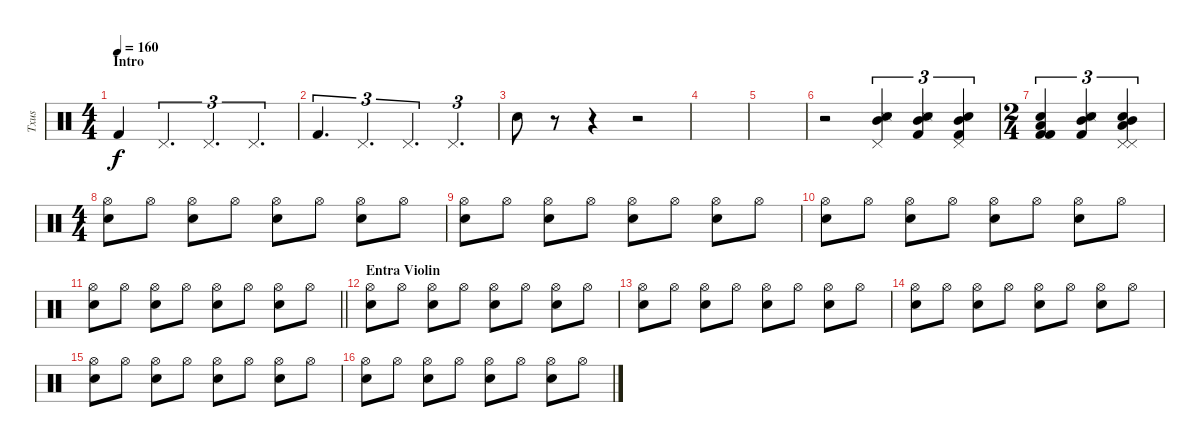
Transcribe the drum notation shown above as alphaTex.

\track ("Txus" "Txus") {instrument percussion}
\staff {score}
\articulation defaults
\ts (4 4)
\section ("" "Intro")
\tempo 160
\clef neutral
\ks c "Kick (hit) 2".4{dy f} "Pedal Hi-Hat (hit)".4{d tu (3 2)} "Pedal Hi-Hat (hit)".4{d tu (3 2)} "Pedal Hi-Hat (hit)".4{d tu (3 2)}
|
"Kick (hit) 2".4{d tu (3 2)} "Pedal Hi-Hat (hit)".4{d tu (3 2)} "Pedal Hi-Hat (hit)".4{d tu (3 2)} "Pedal Hi-Hat (hit)".4{d tu (3 2)} |
"Snare (hit) 2".8 r.8 r.4 r.2 |
|
|
r.2 ("Snare (hit) 2" "Snare (side stick) 3" "Mid Tom (hit)" "Pedal Hi-Hat (hit)").4{tu (3 2)} ("Snare (hit) 2" "Kick (hit) 2" "Snare (side stick) 3" "Mid Tom (hit)").4{tu (3 2)} ("Snare (hit) 2" "Pedal Hi-Hat (hit)" "Kick (hit) 2" "Mid Tom (hit)").4{tu (3 2)} |
\ts (2 4)
("Snare (hit) 2" "Kick (hit) 2" "Kick (hit) 2" "Low Tom (hit)").4{tu (3 2)} ("Snare (hit) 2" "Snare (side stick) 3" "Mid Tom (hit)" "Kick (hit) 2").4{tu (3 2)} ("Low Tom (hit)" "Mid Tom (hit)" "Snare (hit) 2" "Pedal Hi-Hat (hit)" "Pedal Hi-Hat (hit)").4{tu (3 2)} |
\ts (4 4)
("Snare (hit) 2" "Hi-Hat (open)").8 "Hi-Hat (open)".8 ("Snare (hit) 2" "Hi-Hat (open)").8 "Hi-Hat (open)".8 ("Snare (hit) 2" "Hi-Hat (open)").8 "Hi-Hat (open)".8 ("Snare (hit) 2" "Hi-Hat (open)").8 "Hi-Hat (open)".8 |
("Snare (hit) 2" "Hi-Hat (open)").8 "Hi-Hat (open)".8 ("Snare (hit) 2" "Hi-Hat (open)").8 "Hi-Hat (open)".8 ("Snare (hit) 2" "Hi-Hat (open)").8 "Hi-Hat (open)".8 ("Snare (hit) 2" "Hi-Hat (open)").8 "Hi-Hat (open)".8 |
("Snare (hit) 2" "Hi-Hat (open)").8 "Hi-Hat (open)".8 ("Snare (hit) 2" "Hi-Hat (open)").8 "Hi-Hat (open)".8 ("Snare (hit) 2" "Hi-Hat (open)").8 "Hi-Hat (open)".8 ("Snare (hit) 2" "Hi-Hat (open)").8 "Hi-Hat (open)".8 |
\barLineRight lightlight
("Snare (hit) 2" "Hi-Hat (open)").8 "Hi-Hat (open)".8 ("Snare (hit) 2" "Hi-Hat (open)").8 "Hi-Hat (open)".8 ("Snare (hit) 2" "Hi-Hat (open)").8 "Hi-Hat (open)".8 ("Snare (hit) 2" "Hi-Hat (open)").8 "Hi-Hat (open)".8 |
\section ("" "Entra Violin")
("Snare (hit) 2" "Hi-Hat (open)").8 "Hi-Hat (open)".8 ("Snare (hit) 2" "Hi-Hat (open)").8 "Hi-Hat (open)".8 ("Snare (hit) 2" "Hi-Hat (open)").8 "Hi-Hat (open)".8 ("Snare (hit) 2" "Hi-Hat (open)").8 "Hi-Hat (open)".8 |
("Snare (hit) 2" "Hi-Hat (open)").8 "Hi-Hat (open)".8 ("Snare (hit) 2" "Hi-Hat (open)").8 "Hi-Hat (open)".8 ("Snare (hit) 2" "Hi-Hat (open)").8 "Hi-Hat (open)".8 ("Snare (hit) 2" "Hi-Hat (open)").8 "Hi-Hat (open)".8 |
("Snare (hit) 2" "Hi-Hat (open)").8 "Hi-Hat (open)".8 ("Snare (hit) 2" "Hi-Hat (open)").8 "Hi-Hat (open)".8 ("Snare (hit) 2" "Hi-Hat (open)").8 "Hi-Hat (open)".8 ("Snare (hit) 2" "Hi-Hat (open)").8 "Hi-Hat (open)".8 |
("Snare (hit) 2" "Hi-Hat (open)").8 "Hi-Hat (open)".8 ("Snare (hit) 2" "Hi-Hat (open)").8 "Hi-Hat (open)".8 ("Snare (hit) 2" "Hi-Hat (open)").8 "Hi-Hat (open)".8 ("Snare (hit) 2" "Hi-Hat (open)").8 "Hi-Hat (open)".8 |
("Snare (hit) 2" "Hi-Hat (open)").8 "Hi-Hat (open)".8 ("Snare (hit) 2" "Hi-Hat (open)").8 "Hi-Hat (open)".8 ("Snare (hit) 2" "Hi-Hat (open)").8 "Hi-Hat (open)".8 ("Snare (hit) 2" "Hi-Hat (open)").8 "Hi-Hat (open)".8
